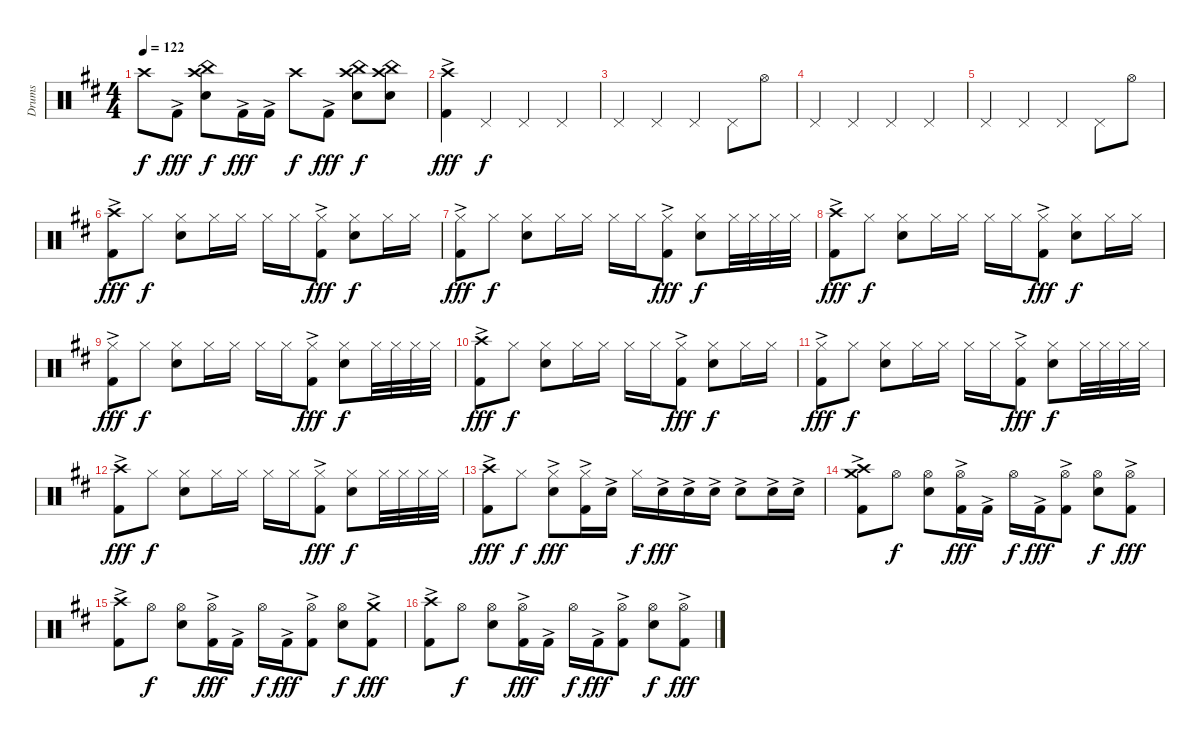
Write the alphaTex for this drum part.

\track ("Drums" "Drums") {instrument percussion}
\staff {score}
\articulation defaults
\ts (4 4)
\tempo 122
\clef neutral
\ks bminor "Crash high (hit)".8{dy f} "Kick (hit) 2"{ac}.8{dy fff}
("Crash high (hit)" "China (hit)" "Snare (hit) 2").8{dy f} "Kick (hit) 2"{ac}.16{dy fff} "Kick (hit) 2"{ac}.16 "Crash high (hit)".8{dy f} "Kick (hit) 2"{ac}.8{dy fff} ("Crash high (hit)" "China (hit)" "Snare (hit) 2").8{dy f} ("Crash high (hit)" "China (hit)" "Snare (hit) 2").8 |
("Crash high (hit)" "Kick (hit) 2"{ac}).4{dy fff} "Pedal Hi-Hat (hit)".4{dy f} "Pedal Hi-Hat (hit)".4 "Pedal Hi-Hat (hit)".4 |
"Pedal Hi-Hat (hit)".4 "Pedal Hi-Hat (hit)".4 "Pedal Hi-Hat (hit)".4 "Pedal Hi-Hat (hit)".8 "Hi-Hat (open)".8 |
"Pedal Hi-Hat (hit)".4 "Pedal Hi-Hat (hit)".4 "Pedal Hi-Hat (hit)".4 "Pedal Hi-Hat (hit)".4 |
"Pedal Hi-Hat (hit)".4 "Pedal Hi-Hat (hit)".4 "Pedal Hi-Hat (hit)".4 "Pedal Hi-Hat (hit)".8 "Hi-Hat (open)".8 |
("Crash high (hit)" "Kick (hit) 2"{ac}).8{dy fff} "Hi-Hat (closed)".8{dy f} ("Hi-Hat (closed)" "Snare (hit) 2").8 "Hi-Hat (closed)".16 "Hi-Hat (closed)".16 "Hi-Hat (closed)".16 "Hi-Hat (closed)".16 ("Hi-Hat (closed)" "Kick (hit) 2"{ac}).8{dy fff} ("Hi-Hat (closed)" "Snare (hit) 2").8{dy f} "Hi-Hat (closed)".16 "Hi-Hat (closed)".16 |
("Hi-Hat (closed)" "Kick (hit) 2"{ac}).8{dy fff} "Hi-Hat (closed)".8{dy f} ("Hi-Hat (closed)" "Snare (hit) 2").8 "Hi-Hat (closed)".16 "Hi-Hat (closed)".16 "Hi-Hat (closed)".16 "Hi-Hat (closed)".16 ("Hi-Hat (closed)" "Kick (hit) 2"{ac}).8{dy fff} ("Hi-Hat (closed)" "Snare (hit) 2").8{dy f} "Hi-Hat (closed)".32 "Hi-Hat (closed)".32 "Hi-Hat (closed)".32 "Hi-Hat (closed)".32 |
("Crash high (hit)" "Kick (hit) 2"{ac}).8{dy fff} "Hi-Hat (closed)".8{dy f} ("Hi-Hat (closed)" "Snare (hit) 2").8 "Hi-Hat (closed)".16 "Hi-Hat (closed)".16 "Hi-Hat (closed)".16 "Hi-Hat (closed)".16 ("Hi-Hat (closed)" "Kick (hit) 2"{ac}).8{dy fff} ("Hi-Hat (closed)" "Snare (hit) 2").8{dy f} "Hi-Hat (closed)".16 "Hi-Hat (closed)".16 |
("Hi-Hat (closed)" "Kick (hit) 2"{ac}).8{dy fff} "Hi-Hat (closed)".8{dy f} ("Hi-Hat (closed)" "Snare (hit) 2").8 "Hi-Hat (closed)".16 "Hi-Hat (closed)".16 "Hi-Hat (closed)".16 "Hi-Hat (closed)".16 ("Hi-Hat (closed)" "Kick (hit) 2"{ac}).8{dy fff} ("Hi-Hat (closed)" "Snare (hit) 2").8{dy f} "Hi-Hat (closed)".32 "Hi-Hat (closed)".32 "Hi-Hat (closed)".32 "Hi-Hat (closed)".32 |
("Crash high (hit)" "Kick (hit) 2"{ac}).8{dy fff} "Hi-Hat (closed)".8{dy f} ("Hi-Hat (closed)" "Snare (hit) 2").8 "Hi-Hat (closed)".16 "Hi-Hat (closed)".16 "Hi-Hat (closed)".16 "Hi-Hat (closed)".16 ("Hi-Hat (closed)" "Kick (hit) 2"{ac}).8{dy fff} ("Hi-Hat (closed)" "Snare (hit) 2").8{dy f} "Hi-Hat (closed)".16 "Hi-Hat (closed)".16 |
("Hi-Hat (closed)" "Kick (hit) 2"{ac}).8{dy fff} "Hi-Hat (closed)".8{dy f} ("Hi-Hat (closed)" "Snare (hit) 2").8 "Hi-Hat (closed)".16 "Hi-Hat (closed)".16 "Hi-Hat (closed)".16 "Hi-Hat (closed)".16 ("Hi-Hat (closed)" "Kick (hit) 2"{ac}).8{dy fff} ("Hi-Hat (closed)" "Snare (hit) 2").8{dy f} "Hi-Hat (closed)".32 "Hi-Hat (closed)".32 "Hi-Hat (closed)".32 "Hi-Hat (closed)".32 |
("Crash high (hit)" "Kick (hit) 2"{ac}).8{dy fff} "Hi-Hat (closed)".8{dy f} ("Hi-Hat (closed)" "Snare (hit) 2").8 "Hi-Hat (closed)".16 "Hi-Hat (closed)".16 "Hi-Hat (closed)".16 "Hi-Hat (closed)".16 ("Hi-Hat (closed)" "Kick (hit) 2"{ac}).8{dy fff} ("Hi-Hat (closed)" "Snare (hit) 2").8{dy f} "Hi-Hat (closed)".32 "Hi-Hat (closed)".32 "Hi-Hat (closed)".32 "Hi-Hat (closed)".32 |
("Crash high (hit)" "Kick (hit) 2"{ac}).8{dy fff} "Hi-Hat (closed)".8{dy f} ("Hi-Hat (closed)" "Snare (hit) 2"{ac}).8{dy fff} ("Hi-Hat (closed)" "Kick (hit) 2"{ac}).16 "Snare (hit) 2"{ac}.16 "Hi-Hat (closed)".16{dy f} "Snare (hit) 2"{ac}.16{dy fff} "Snare (hit) 2"{ac}.16 "Snare (hit) 2"{ac}.16 "Snare (hit) 2"{ac}.8 "Snare (hit) 2"{ac}.16 "Snare (hit) 2"{ac}.16 |
("Crash high (hit)" "Crash medium (hit)" "Kick (hit) 2"{ac}).8 "Hi-Hat (open)".8{dy f} ("Hi-Hat (open)" "Snare (hit) 2").8 ("Hi-Hat (open)" "Kick (hit) 2"{ac}).16{dy fff} "Kick (hit) 2"{ac}.16 "Hi-Hat (open)".16{dy f} "Kick (hit) 2"{ac}.16{dy fff} ("Hi-Hat (open)" "Kick (hit) 2"{ac}).8 ("Hi-Hat (open)" "Snare (hit) 2").8{dy f} ("Hi-Hat (open)" "Kick (hit) 2"{ac}).8{dy fff} |
("Crash high (hit)" "Kick (hit) 2"{ac}).8 "Hi-Hat (open)".8{dy f} ("Hi-Hat (open)" "Snare (hit) 2").8 ("Hi-Hat (open)" "Kick (hit) 2"{ac}).16{dy fff} "Kick (hit) 2"{ac}.16 "Hi-Hat (open)".16{dy f} "Kick (hit) 2"{ac}.16{dy fff} ("Hi-Hat (open)" "Kick (hit) 2"{ac}).8 ("Hi-Hat (open)" "Snare (hit) 2").8{dy f} ("Crash medium (hit)" "Kick (hit) 2"{ac}).8{dy fff} |
("Crash high (hit)" "Kick (hit) 2"{ac}).8 "Hi-Hat (open)".8{dy f} ("Hi-Hat (open)" "Snare (hit) 2").8 ("Hi-Hat (open)" "Kick (hit) 2"{ac}).16{dy fff} "Kick (hit) 2"{ac}.16 "Hi-Hat (open)".16{dy f} "Kick (hit) 2"{ac}.16{dy fff} ("Hi-Hat (open)" "Kick (hit) 2"{ac}).8 ("Hi-Hat (open)" "Snare (hit) 2").8{dy f} ("Hi-Hat (open)" "Kick (hit) 2"{ac}).8{dy fff}
